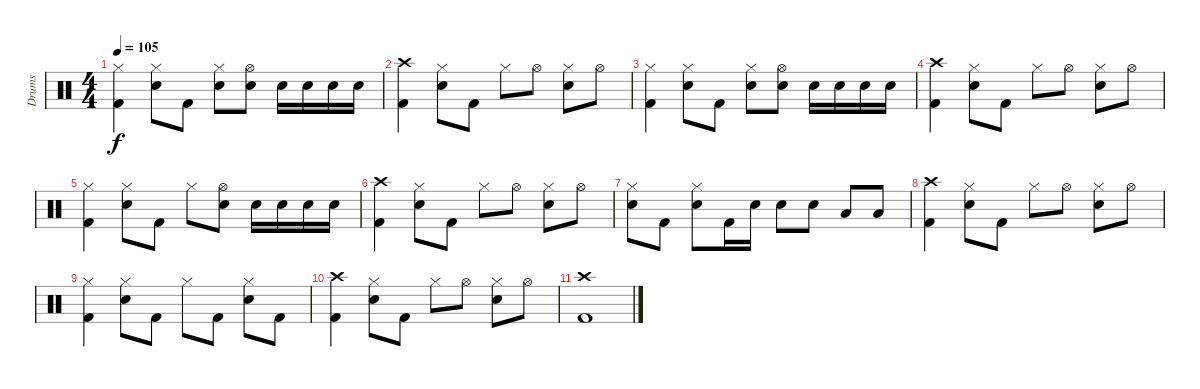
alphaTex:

\track ("Drums" "Drums") {instrument percussion}
\staff {score}
\articulation defaults
\ts (4 4)
\tempo 105
\clef neutral
\ks c
("Hi-Hat (closed)" "Kick (hit) 2").4{dy f} ("Hi-Hat (closed)" "Snare (hit) 2").8 "Kick (hit) 2".8 ("Hi-Hat (closed)" "Snare (hit) 2").8 ("Hi-Hat (open)" "Snare (hit) 2").8 "Snare (hit) 2".16 "Snare (hit) 2".16 "Snare (hit) 2".16 "Snare (hit) 2".16 |
("Crash high (hit)" "Kick (hit) 2").4 ("Hi-Hat (closed)" "Snare (hit) 2").8 "Kick (hit) 2".8 "Hi-Hat (closed)".8 "Hi-Hat (open)".8 ("Hi-Hat (closed)" "Snare (hit) 2").8 "Hi-Hat (open)".8 |
("Hi-Hat (closed)" "Kick (hit) 2").4 ("Hi-Hat (closed)" "Snare (hit) 2").8 "Kick (hit) 2".8 ("Hi-Hat (closed)" "Snare (hit) 2").8 ("Hi-Hat (open)" "Snare (hit) 2").8 "Snare (hit) 2".16 "Snare (hit) 2".16 "Snare (hit) 2".16 "Snare (hit) 2".16 |
("Crash high (hit)" "Kick (hit) 2").4 ("Hi-Hat (closed)" "Snare (hit) 2").8 "Kick (hit) 2".8 "Hi-Hat (closed)".8 "Hi-Hat (open)".8 ("Hi-Hat (closed)" "Snare (hit) 2").8 "Hi-Hat (open)".8 |
("Hi-Hat (closed)" "Kick (hit) 2").4 ("Hi-Hat (closed)" "Snare (hit) 2").8 "Kick (hit) 2".8 "Hi-Hat (closed)".8 ("Hi-Hat (open)" "Snare (hit) 2").8 "Snare (hit) 2".16 "Snare (hit) 2".16 "Snare (hit) 2".16 "Snare (hit) 2".16 |
("Crash high (hit)" "Kick (hit) 2").4 ("Hi-Hat (closed)" "Snare (hit) 2").8 "Kick (hit) 2".8 "Hi-Hat (closed)".8 "Hi-Hat (open)".8 ("Hi-Hat (closed)" "Snare (hit) 2").8 "Hi-Hat (open)".8 |
("Hi-Hat (closed)" "Snare (hit) 2").8 "Kick (hit) 2".8 ("Hi-Hat (closed)" "Snare (hit) 2").8 "Kick (hit) 2".16 "Snare (hit) 2".16 "Snare (hit) 2".8 "Snare (hit) 2".8 "Low Tom (hit)".8 "Low Tom (hit)".8 |
("Crash high (hit)" "Kick (hit) 2").4 ("Hi-Hat (closed)" "Snare (hit) 2").8 "Kick (hit) 2".8 "Hi-Hat (closed)".8 "Hi-Hat (open)".8 ("Hi-Hat (closed)" "Snare (hit) 2").8 "Hi-Hat (open)".8 |
("Hi-Hat (closed)" "Kick (hit) 2").4 ("Hi-Hat (closed)" "Snare (hit) 2").8 "Kick (hit) 2".8 "Hi-Hat (closed)".8 "Kick (hit) 2".8 ("Hi-Hat (closed)" "Snare (hit) 2").8 "Kick (hit) 2".8 |
("Crash high (hit)" "Kick (hit) 2").4 ("Hi-Hat (closed)" "Snare (hit) 2").8 "Kick (hit) 2".8 "Hi-Hat (closed)".8 "Hi-Hat (open)".8 ("Hi-Hat (closed)" "Snare (hit) 2").8 "Hi-Hat (open)".8 |
("Crash high (hit)" "Kick (hit) 2").1
